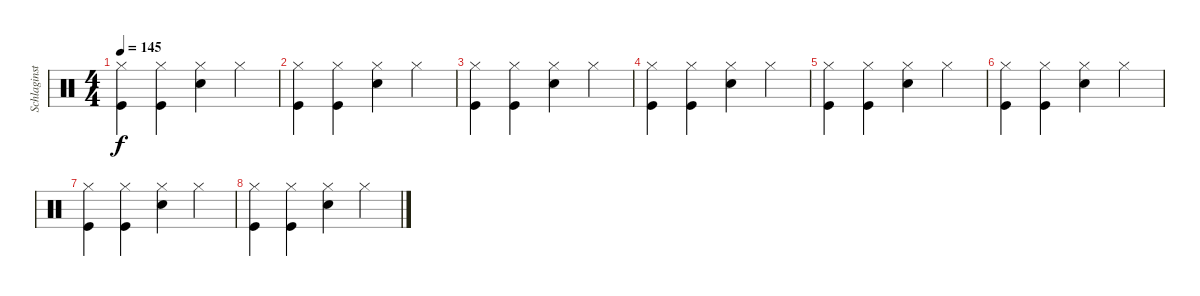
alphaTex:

\track ("Schlaginstrumente - Auswahl" "Schlaginst") {instrument percussion}
\staff {score}
\articulation defaults
\ts (4 4)
\tempo 145
\clef neutral
\ks c
("Kick (hit)" "Hi-Hat (closed)").4{dy f} ("Kick (hit)" "Hi-Hat (closed)").4 ("Snare (hit) 2" "Hi-Hat (closed)").4 "Hi-Hat (closed)".4 |
("Kick (hit)" "Hi-Hat (closed)").4 ("Kick (hit)" "Hi-Hat (closed)").4 ("Snare (hit) 2" "Hi-Hat (closed)").4 "Hi-Hat (closed)".4 |
("Kick (hit)" "Hi-Hat (closed)").4 ("Kick (hit)" "Hi-Hat (closed)").4 ("Snare (hit) 2" "Hi-Hat (closed)").4 "Hi-Hat (closed)".4 |
("Kick (hit)" "Hi-Hat (closed)").4 ("Kick (hit)" "Hi-Hat (closed)").4 ("Snare (hit) 2" "Hi-Hat (closed)").4 "Hi-Hat (closed)".4 |
("Kick (hit)" "Hi-Hat (closed)").4 ("Kick (hit)" "Hi-Hat (closed)").4 ("Snare (hit) 2" "Hi-Hat (closed)").4 "Hi-Hat (closed)".4 |
("Kick (hit)" "Hi-Hat (closed)").4 ("Kick (hit)" "Hi-Hat (closed)").4 ("Snare (hit) 2" "Hi-Hat (closed)").4 "Hi-Hat (closed)".4 |
("Kick (hit)" "Hi-Hat (closed)").4 ("Kick (hit)" "Hi-Hat (closed)").4 ("Snare (hit) 2" "Hi-Hat (closed)").4 "Hi-Hat (closed)".4 |
("Kick (hit)" "Hi-Hat (closed)").4 ("Kick (hit)" "Hi-Hat (closed)").4 ("Snare (hit) 2" "Hi-Hat (closed)").4 "Hi-Hat (closed)".4
